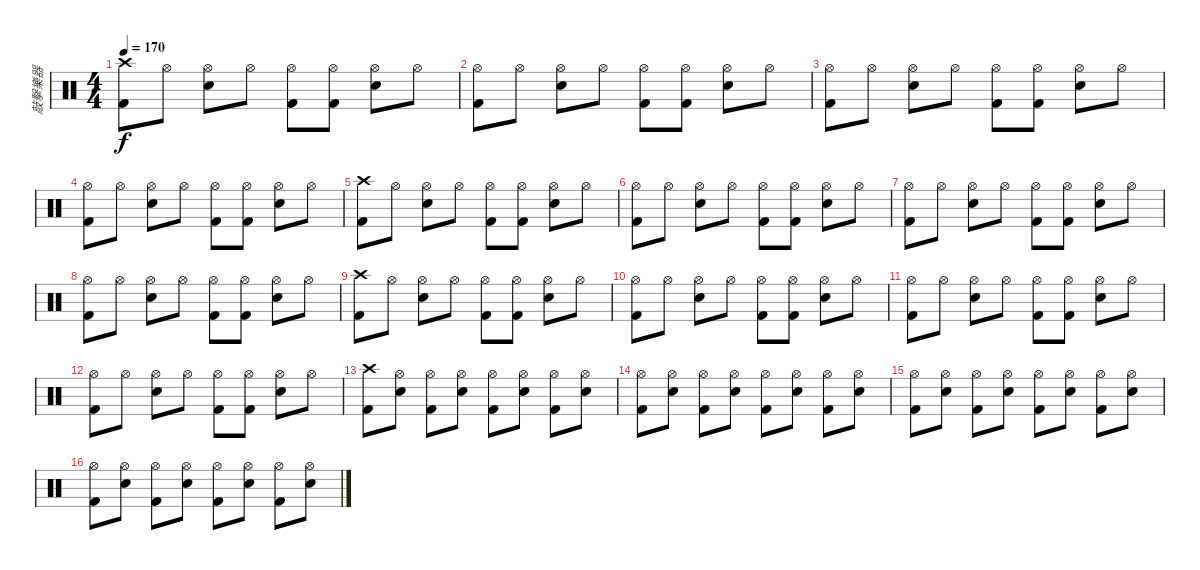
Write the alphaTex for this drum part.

\track ("敲擊樂器" "敲擊樂器") {instrument percussion}
\staff {score}
\articulation defaults
\ts (4 4)
\tempo 170
\clef neutral
\ks c
("Crash high (hit)" "Kick (hit) 2").8{dy f} "Hi-Hat (open)".8 ("Hi-Hat (open)" "Snare (hit) 2").8 "Hi-Hat (open)".8 ("Hi-Hat (open)" "Kick (hit) 2").8 ("Hi-Hat (open)" "Kick (hit) 2").8 ("Hi-Hat (open)" "Snare (hit) 2").8 "Hi-Hat (open)".8 |
("Hi-Hat (open)" "Kick (hit) 2").8 "Hi-Hat (open)".8 ("Hi-Hat (open)" "Snare (hit) 2").8 "Hi-Hat (open)".8 ("Hi-Hat (open)" "Kick (hit) 2").8 ("Hi-Hat (open)" "Kick (hit) 2").8 ("Hi-Hat (open)" "Snare (hit) 2").8 "Hi-Hat (open)".8 |
("Hi-Hat (open)" "Kick (hit) 2").8 "Hi-Hat (open)".8 ("Hi-Hat (open)" "Snare (hit) 2").8 "Hi-Hat (open)".8 ("Hi-Hat (open)" "Kick (hit) 2").8 ("Hi-Hat (open)" "Kick (hit) 2").8 ("Hi-Hat (open)" "Snare (hit) 2").8 "Hi-Hat (open)".8 |
("Hi-Hat (open)" "Kick (hit) 2").8 "Hi-Hat (open)".8 ("Hi-Hat (open)" "Snare (hit) 2").8 "Hi-Hat (open)".8 ("Hi-Hat (open)" "Kick (hit) 2").8 ("Hi-Hat (open)" "Kick (hit) 2").8 ("Hi-Hat (open)" "Snare (hit) 2").8 "Hi-Hat (open)".8 |
("Crash high (hit)" "Kick (hit) 2").8 "Hi-Hat (open)".8 ("Hi-Hat (open)" "Snare (hit) 2").8 "Hi-Hat (open)".8 ("Hi-Hat (open)" "Kick (hit) 2").8 ("Hi-Hat (open)" "Kick (hit) 2").8 ("Hi-Hat (open)" "Snare (hit) 2").8 "Hi-Hat (open)".8 |
("Hi-Hat (open)" "Kick (hit) 2").8 "Hi-Hat (open)".8 ("Hi-Hat (open)" "Snare (hit) 2").8 "Hi-Hat (open)".8 ("Hi-Hat (open)" "Kick (hit) 2").8 ("Hi-Hat (open)" "Kick (hit) 2").8 ("Hi-Hat (open)" "Snare (hit) 2").8 "Hi-Hat (open)".8 |
("Hi-Hat (open)" "Kick (hit) 2").8 "Hi-Hat (open)".8 ("Hi-Hat (open)" "Snare (hit) 2").8 "Hi-Hat (open)".8 ("Hi-Hat (open)" "Kick (hit) 2").8 ("Hi-Hat (open)" "Kick (hit) 2").8 ("Hi-Hat (open)" "Snare (hit) 2").8 "Hi-Hat (open)".8 |
("Hi-Hat (open)" "Kick (hit) 2").8 "Hi-Hat (open)".8 ("Hi-Hat (open)" "Snare (hit) 2").8 "Hi-Hat (open)".8 ("Hi-Hat (open)" "Kick (hit) 2").8 ("Hi-Hat (open)" "Kick (hit) 2").8 ("Hi-Hat (open)" "Snare (hit) 2").8 "Hi-Hat (open)".8 |
("Crash high (hit)" "Kick (hit) 2").8 "Hi-Hat (open)".8 ("Hi-Hat (open)" "Snare (hit) 2").8 "Hi-Hat (open)".8 ("Hi-Hat (open)" "Kick (hit) 2").8 ("Hi-Hat (open)" "Kick (hit) 2").8 ("Hi-Hat (open)" "Snare (hit) 2").8 "Hi-Hat (open)".8 |
("Hi-Hat (open)" "Kick (hit) 2").8 "Hi-Hat (open)".8 ("Hi-Hat (open)" "Snare (hit) 2").8 "Hi-Hat (open)".8 ("Hi-Hat (open)" "Kick (hit) 2").8 ("Hi-Hat (open)" "Kick (hit) 2").8 ("Hi-Hat (open)" "Snare (hit) 2").8 "Hi-Hat (open)".8 |
("Hi-Hat (open)" "Kick (hit) 2").8 "Hi-Hat (open)".8 ("Hi-Hat (open)" "Snare (hit) 2").8 "Hi-Hat (open)".8 ("Hi-Hat (open)" "Kick (hit) 2").8 ("Hi-Hat (open)" "Kick (hit) 2").8 ("Hi-Hat (open)" "Snare (hit) 2").8 "Hi-Hat (open)".8 |
("Hi-Hat (open)" "Kick (hit) 2").8 "Hi-Hat (open)".8 ("Hi-Hat (open)" "Snare (hit) 2").8 "Hi-Hat (open)".8 ("Hi-Hat (open)" "Kick (hit) 2").8 ("Hi-Hat (open)" "Kick (hit) 2").8 ("Hi-Hat (open)" "Snare (hit) 2").8 "Hi-Hat (open)".8 |
("Crash high (hit)" "Kick (hit) 2").8 ("Hi-Hat (open)" "Snare (hit) 2").8 ("Hi-Hat (open)" "Kick (hit) 2").8 ("Hi-Hat (open)" "Snare (hit) 2").8 ("Hi-Hat (open)" "Kick (hit) 2").8 ("Hi-Hat (open)" "Snare (hit) 2").8 ("Hi-Hat (open)" "Kick (hit) 2").8 ("Hi-Hat (open)" "Snare (hit) 2").8 |
("Hi-Hat (open)" "Kick (hit) 2").8 ("Hi-Hat (open)" "Snare (hit) 2").8 ("Hi-Hat (open)" "Kick (hit) 2").8 ("Hi-Hat (open)" "Snare (hit) 2").8 ("Hi-Hat (open)" "Kick (hit) 2").8 ("Hi-Hat (open)" "Snare (hit) 2").8 ("Hi-Hat (open)" "Kick (hit) 2").8 ("Hi-Hat (open)" "Snare (hit) 2").8 |
("Hi-Hat (open)" "Kick (hit) 2").8 ("Hi-Hat (open)" "Snare (hit) 2").8 ("Hi-Hat (open)" "Kick (hit) 2").8 ("Hi-Hat (open)" "Snare (hit) 2").8 ("Hi-Hat (open)" "Kick (hit) 2").8 ("Hi-Hat (open)" "Snare (hit) 2").8 ("Hi-Hat (open)" "Kick (hit) 2").8 ("Hi-Hat (open)" "Snare (hit) 2").8 |
("Hi-Hat (open)" "Kick (hit) 2").8 ("Hi-Hat (open)" "Snare (hit) 2").8 ("Hi-Hat (open)" "Kick (hit) 2").8 ("Hi-Hat (open)" "Snare (hit) 2").8 ("Hi-Hat (open)" "Kick (hit) 2").8 ("Hi-Hat (open)" "Snare (hit) 2").8 ("Hi-Hat (open)" "Kick (hit) 2").8 ("Hi-Hat (open)" "Snare (hit) 2").8
